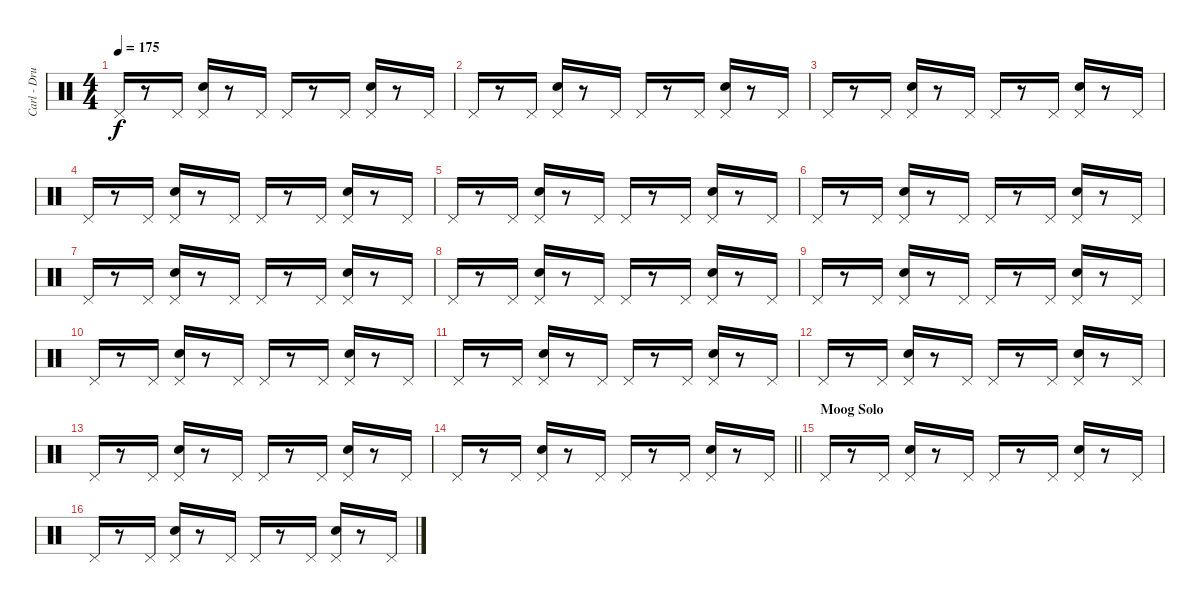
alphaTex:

\track ("Carl - Drums II" "Carl - Dru") {instrument percussion}
\staff {score}
\articulation defaults
\ts (4 4)
\tempo 175
\clef neutral
\ks c "Pedal Hi-Hat (hit)".16{dy f}
r.8 "Pedal Hi-Hat (hit)".16 ("Pedal Hi-Hat (hit)" "Electric Snare (hit)").16 r.8 "Pedal Hi-Hat (hit)".16 "Pedal Hi-Hat (hit)".16 r.8 "Pedal Hi-Hat (hit)".16 ("Pedal Hi-Hat (hit)" "Electric Snare (hit)").16 r.8 "Pedal Hi-Hat (hit)".16 |
"Pedal Hi-Hat (hit)".16 r.8 "Pedal Hi-Hat (hit)".16 ("Pedal Hi-Hat (hit)" "Electric Snare (hit)").16 r.8 "Pedal Hi-Hat (hit)".16 "Pedal Hi-Hat (hit)".16 r.8 "Pedal Hi-Hat (hit)".16 ("Pedal Hi-Hat (hit)" "Electric Snare (hit)").16 r.8 "Pedal Hi-Hat (hit)".16 |
"Pedal Hi-Hat (hit)".16 r.8 "Pedal Hi-Hat (hit)".16 ("Pedal Hi-Hat (hit)" "Electric Snare (hit)").16 r.8 "Pedal Hi-Hat (hit)".16 "Pedal Hi-Hat (hit)".16 r.8 "Pedal Hi-Hat (hit)".16 ("Pedal Hi-Hat (hit)" "Electric Snare (hit)").16 r.8 "Pedal Hi-Hat (hit)".16 |
"Pedal Hi-Hat (hit)".16 r.8 "Pedal Hi-Hat (hit)".16 ("Pedal Hi-Hat (hit)" "Electric Snare (hit)").16 r.8 "Pedal Hi-Hat (hit)".16 "Pedal Hi-Hat (hit)".16 r.8 "Pedal Hi-Hat (hit)".16 ("Pedal Hi-Hat (hit)" "Electric Snare (hit)").16 r.8 "Pedal Hi-Hat (hit)".16 |
"Pedal Hi-Hat (hit)".16 r.8 "Pedal Hi-Hat (hit)".16 ("Pedal Hi-Hat (hit)" "Electric Snare (hit)").16 r.8 "Pedal Hi-Hat (hit)".16 "Pedal Hi-Hat (hit)".16 r.8 "Pedal Hi-Hat (hit)".16 ("Pedal Hi-Hat (hit)" "Electric Snare (hit)").16 r.8 "Pedal Hi-Hat (hit)".16 |
"Pedal Hi-Hat (hit)".16 r.8 "Pedal Hi-Hat (hit)".16 ("Pedal Hi-Hat (hit)" "Electric Snare (hit)").16 r.8 "Pedal Hi-Hat (hit)".16 "Pedal Hi-Hat (hit)".16 r.8 "Pedal Hi-Hat (hit)".16 ("Pedal Hi-Hat (hit)" "Electric Snare (hit)").16 r.8 "Pedal Hi-Hat (hit)".16 |
"Pedal Hi-Hat (hit)".16 r.8 "Pedal Hi-Hat (hit)".16 ("Pedal Hi-Hat (hit)" "Electric Snare (hit)").16 r.8 "Pedal Hi-Hat (hit)".16 "Pedal Hi-Hat (hit)".16 r.8 "Pedal Hi-Hat (hit)".16 ("Pedal Hi-Hat (hit)" "Electric Snare (hit)").16 r.8 "Pedal Hi-Hat (hit)".16 |
"Pedal Hi-Hat (hit)".16 r.8 "Pedal Hi-Hat (hit)".16 ("Pedal Hi-Hat (hit)" "Electric Snare (hit)").16 r.8 "Pedal Hi-Hat (hit)".16 "Pedal Hi-Hat (hit)".16 r.8 "Pedal Hi-Hat (hit)".16 ("Pedal Hi-Hat (hit)" "Electric Snare (hit)").16 r.8 "Pedal Hi-Hat (hit)".16 |
"Pedal Hi-Hat (hit)".16 r.8 "Pedal Hi-Hat (hit)".16 ("Pedal Hi-Hat (hit)" "Electric Snare (hit)").16 r.8 "Pedal Hi-Hat (hit)".16 "Pedal Hi-Hat (hit)".16 r.8 "Pedal Hi-Hat (hit)".16 ("Pedal Hi-Hat (hit)" "Electric Snare (hit)").16 r.8 "Pedal Hi-Hat (hit)".16 |
"Pedal Hi-Hat (hit)".16 r.8 "Pedal Hi-Hat (hit)".16 ("Pedal Hi-Hat (hit)" "Electric Snare (hit)").16 r.8 "Pedal Hi-Hat (hit)".16 "Pedal Hi-Hat (hit)".16 r.8 "Pedal Hi-Hat (hit)".16 ("Pedal Hi-Hat (hit)" "Electric Snare (hit)").16 r.8 "Pedal Hi-Hat (hit)".16 |
"Pedal Hi-Hat (hit)".16 r.8 "Pedal Hi-Hat (hit)".16 ("Pedal Hi-Hat (hit)" "Electric Snare (hit)").16 r.8 "Pedal Hi-Hat (hit)".16 "Pedal Hi-Hat (hit)".16 r.8 "Pedal Hi-Hat (hit)".16 ("Pedal Hi-Hat (hit)" "Electric Snare (hit)").16 r.8 "Pedal Hi-Hat (hit)".16 |
"Pedal Hi-Hat (hit)".16 r.8 "Pedal Hi-Hat (hit)".16 ("Pedal Hi-Hat (hit)" "Electric Snare (hit)").16 r.8 "Pedal Hi-Hat (hit)".16 "Pedal Hi-Hat (hit)".16 r.8 "Pedal Hi-Hat (hit)".16 ("Pedal Hi-Hat (hit)" "Electric Snare (hit)").16 r.8 "Pedal Hi-Hat (hit)".16 |
"Pedal Hi-Hat (hit)".16 r.8 "Pedal Hi-Hat (hit)".16 ("Pedal Hi-Hat (hit)" "Electric Snare (hit)").16 r.8 "Pedal Hi-Hat (hit)".16 "Pedal Hi-Hat (hit)".16 r.8 "Pedal Hi-Hat (hit)".16 ("Pedal Hi-Hat (hit)" "Electric Snare (hit)").16 r.8 "Pedal Hi-Hat (hit)".16 |
\barLineRight lightlight "Pedal Hi-Hat (hit)".16
r.8 "Pedal Hi-Hat (hit)".16 ("Pedal Hi-Hat (hit)" "Electric Snare (hit)").16 r.8 "Pedal Hi-Hat (hit)".16 "Pedal Hi-Hat (hit)".16 r.8 "Pedal Hi-Hat (hit)".16 ("Pedal Hi-Hat (hit)" "Electric Snare (hit)").16 r.8 "Pedal Hi-Hat (hit)".16 |
\section ("" "Moog Solo")
"Pedal Hi-Hat (hit)".16 r.8 "Pedal Hi-Hat (hit)".16 ("Pedal Hi-Hat (hit)" "Electric Snare (hit)").16 r.8 "Pedal Hi-Hat (hit)".16 "Pedal Hi-Hat (hit)".16 r.8 "Pedal Hi-Hat (hit)".16 ("Pedal Hi-Hat (hit)" "Electric Snare (hit)").16 r.8 "Pedal Hi-Hat (hit)".16 |
"Pedal Hi-Hat (hit)".16 r.8 "Pedal Hi-Hat (hit)".16 ("Pedal Hi-Hat (hit)" "Electric Snare (hit)").16 r.8 "Pedal Hi-Hat (hit)".16 "Pedal Hi-Hat (hit)".16 r.8 "Pedal Hi-Hat (hit)".16 ("Pedal Hi-Hat (hit)" "Electric Snare (hit)").16 r.8 "Pedal Hi-Hat (hit)".16
